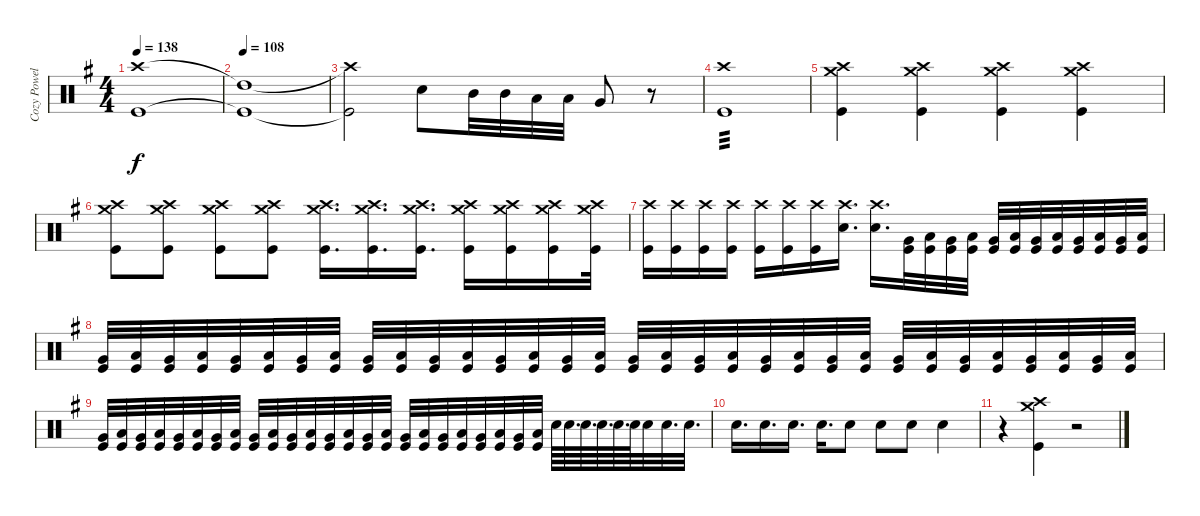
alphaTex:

\track ("Cozy Powell Drums" "Cozy Powel") {instrument percussion}
\staff {score}
\articulation defaults
\ts (4 4)
\tempo 138
\clef neutral
\ks g
("Crash high (hit)" "Kick (hit)").1{dy f} |
\tempo 108
("High Tom (hit)"{t} "Kick (hit)"{t}).1 |
("Crash high (hit)"{t} "Kick (hit)"{t}).2 "Snare (hit) 2".8 "Mid Tom (hit)".32 "Mid Tom (hit)".32 "Low Tom (hit)".32 "Low Tom (hit)".32 "Very Low Tom (hit)".8 r.8 |
("Crash high (hit)" "Kick (hit)").1{tp 3} |
("Crash high (hit)" "Crash medium (hit)" "Kick (hit)").4 ("Crash high (hit)" "Crash medium (hit)" "Kick (hit)").4 ("Crash high (hit)" "Crash medium (hit)" "Kick (hit)").4 ("Crash high (hit)" "Crash medium (hit)" "Kick (hit)").4 |
("Crash high (hit)" "Crash medium (hit)" "Kick (hit)").8 ("Crash high (hit)" "Crash medium (hit)" "Kick (hit)").8 ("Crash high (hit)" "Crash medium (hit)" "Kick (hit)").8 ("Crash high (hit)" "Crash medium (hit)" "Kick (hit)").8 ("Crash high (hit)" "Crash medium (hit)" "Kick (hit)").16{d} ("Crash high (hit)" "Crash medium (hit)" "Kick (hit)").16{d} ("Crash high (hit)" "Crash medium (hit)" "Kick (hit)").16{d} ("Crash high (hit)" "Crash medium (hit)" "Kick (hit)").16 ("Crash high (hit)" "Crash medium (hit)" "Kick (hit)").16 ("Crash high (hit)" "Crash medium (hit)" "Kick (hit)").16 ("Crash high (hit)" "Crash medium (hit)" "Kick (hit)").32 |
("Crash high (hit)" "Kick (hit)").16 ("Crash high (hit)" "Kick (hit)").16 ("Crash high (hit)" "Kick (hit)").16 ("Crash high (hit)" "Kick (hit)").16 ("Crash high (hit)" "Kick (hit)").16 ("Crash high (hit)" "Kick (hit)").16 ("Crash high (hit)" "Kick (hit)").16 ("Crash high (hit)" "Snare (hit) 2").16{d} ("Crash high (hit)" "Snare (hit) 2").16{d} ("Very Low Tom (hit)" "Kick (hit)").32 ("Low Floor Tom (hit)" "Kick (hit)").32 ("Very Low Tom (hit)" "Kick (hit)").32 ("Low Floor Tom (hit)" "Kick (hit)").32 ("Very Low Tom (hit)" "Kick (hit)").32 ("Low Floor Tom (hit)" "Kick (hit)").32 ("Very Low Tom (hit)" "Kick (hit)").32 ("Low Floor Tom (hit)" "Kick (hit)").32 ("Very Low Tom (hit)" "Kick (hit)").32 ("Low Floor Tom (hit)" "Kick (hit)").32 ("Very Low Tom (hit)" "Kick (hit)").32 ("Low Floor Tom (hit)" "Kick (hit)").32 |
("Very Low Tom (hit)" "Kick (hit)").32 ("Low Floor Tom (hit)" "Kick (hit)").32 ("Very Low Tom (hit)" "Kick (hit)").32 ("Low Floor Tom (hit)" "Kick (hit)").32 ("Very Low Tom (hit)" "Kick (hit)").32 ("Low Floor Tom (hit)" "Kick (hit)").32 ("Very Low Tom (hit)" "Kick (hit)").32 ("Low Floor Tom (hit)" "Kick (hit)").32 ("Very Low Tom (hit)" "Kick (hit)").32 ("Low Floor Tom (hit)" "Kick (hit)").32 ("Very Low Tom (hit)" "Kick (hit)").32 ("Low Floor Tom (hit)" "Kick (hit)").32 ("Very Low Tom (hit)" "Kick (hit)").32 ("Low Floor Tom (hit)" "Kick (hit)").32 ("Very Low Tom (hit)" "Kick (hit)").32 ("Low Floor Tom (hit)" "Kick (hit)").32 ("Very Low Tom (hit)" "Kick (hit)").32 ("Low Floor Tom (hit)" "Kick (hit)").32 ("Very Low Tom (hit)" "Kick (hit)").32 ("Low Floor Tom (hit)" "Kick (hit)").32 ("Very Low Tom (hit)" "Kick (hit)").32 ("Low Floor Tom (hit)" "Kick (hit)").32 ("Very Low Tom (hit)" "Kick (hit)").32 ("Low Floor Tom (hit)" "Kick (hit)").32 ("Very Low Tom (hit)" "Kick (hit)").32 ("Low Floor Tom (hit)" "Kick (hit)").32 ("Very Low Tom (hit)" "Kick (hit)").32 ("Low Floor Tom (hit)" "Kick (hit)").32 ("Very Low Tom (hit)" "Kick (hit)").32 ("Low Floor Tom (hit)" "Kick (hit)").32 ("Very Low Tom (hit)" "Kick (hit)").32 ("Low Floor Tom (hit)" "Kick (hit)").32 |
("Very Low Tom (hit)" "Kick (hit)").32 ("Low Floor Tom (hit)" "Kick (hit)").32 ("Very Low Tom (hit)" "Kick (hit)").32 ("Low Floor Tom (hit)" "Kick (hit)").32 ("Very Low Tom (hit)" "Kick (hit)").32 ("Low Floor Tom (hit)" "Kick (hit)").32 ("Very Low Tom (hit)" "Kick (hit)").32 ("Low Floor Tom (hit)" "Kick (hit)").32 ("Very Low Tom (hit)" "Kick (hit)").32 ("Low Floor Tom (hit)" "Kick (hit)").32 ("Very Low Tom (hit)" "Kick (hit)").32 ("Low Floor Tom (hit)" "Kick (hit)").32 ("Very Low Tom (hit)" "Kick (hit)").32 ("Low Floor Tom (hit)" "Kick (hit)").32 ("Very Low Tom (hit)" "Kick (hit)").32 ("Low Floor Tom (hit)" "Kick (hit)").32 ("Very Low Tom (hit)" "Kick (hit)").32 ("Low Floor Tom (hit)" "Kick (hit)").32 ("Very Low Tom (hit)" "Kick (hit)").32 ("Low Floor Tom (hit)" "Kick (hit)").32 ("Very Low Tom (hit)" "Kick (hit)").32 ("Low Floor Tom (hit)" "Kick (hit)").32 ("Very Low Tom (hit)" "Kick (hit)").32 ("Low Floor Tom (hit)" "Kick (hit)").32 "Snare (hit) 2".64 "Snare (hit) 2".64{d} "Snare (hit) 2".64{d} "Snare (hit) 2".64{d} "Snare (hit) 2".64{d} "Snare (hit) 2".64 "Snare (hit) 2".32 "Snare (hit) 2".32{d} "Snare (hit) 2".32{d} |
"Snare (hit) 2".16{d} "Snare (hit) 2".16{d} "Snare (hit) 2".16{d} "Snare (hit) 2".16{d} "Snare (hit) 2".8 "Snare (hit) 2".8 "Snare (hit) 2".8 "Snare (hit) 2".4 |
r.4 ("Crash high (hit)" "Crash medium (hit)" "Kick (hit)").4 r.2
